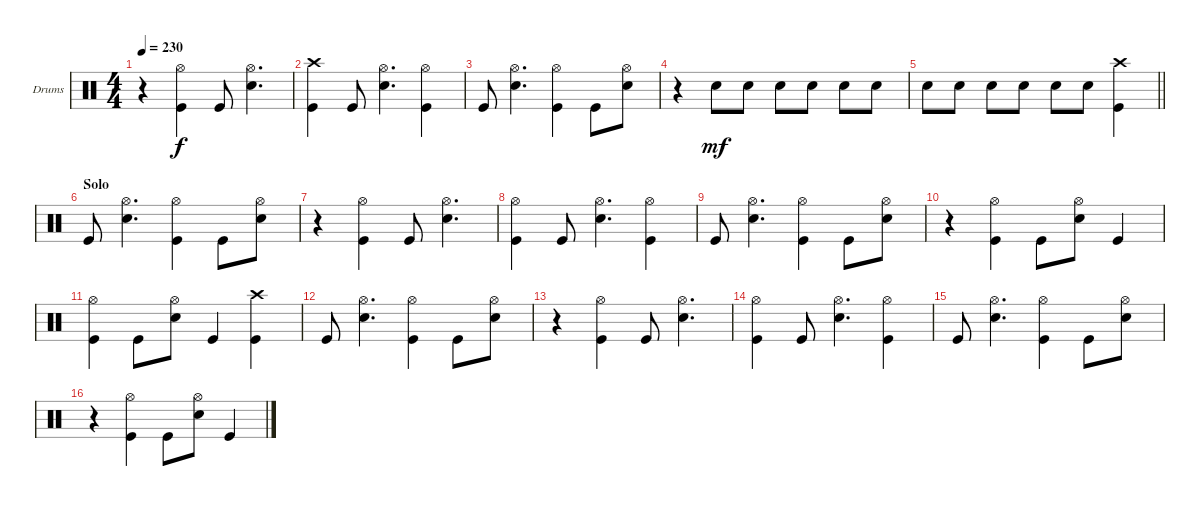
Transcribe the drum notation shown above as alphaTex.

\bracketExtendMode groupsimilarinstruments
\firstSystemTrackNameOrientation horizontal
\otherSystemsTrackNameOrientation horizontal
\track ("Drumkit" "Drums") {instrument percussion}
\staff {score}
\articulation defaults
\ts (4 4)
\tempo 230
\clef neutral
\ks c
r.4{dy f} ("Hi-Hat (open)" "Kick (hit)").4 "Kick (hit)".8 ("Hi-Hat (open)" "Snare (hit) 2").4{d} |
("Crash high (hit)" "Kick (hit)").4 "Kick (hit)".8 ("Hi-Hat (open)" "Snare (hit) 2").4{d} ("Hi-Hat (open)" "Kick (hit)").4 |
"Kick (hit)".8 ("Hi-Hat (open)" "Snare (hit) 2").4{d} ("Hi-Hat (open)" "Kick (hit)").4 "Kick (hit)".8 ("Hi-Hat (open)" "Snare (hit) 2").8 |
r.4 "Snare (hit) 2".8{dy mf} "Snare (hit) 2".8 "Snare (hit) 2".8 "Snare (hit) 2".8 "Snare (hit) 2".8 "Snare (hit) 2".8 |
\barLineRight lightlight "Snare (hit) 2".8 "Snare (hit) 2".8 "Snare (hit) 2".8 "Snare (hit) 2".8 "Snare (hit) 2".8 "Snare (hit) 2".8
("Crash high (hit)" "Kick (hit)").4 |
\section ("" "Solo")
"Kick (hit)".8 ("Hi-Hat (open)" "Snare (hit) 2").4{d} ("Hi-Hat (open)" "Kick (hit)").4 "Kick (hit)".8 ("Hi-Hat (open)" "Snare (hit) 2").8 |
r.4 ("Hi-Hat (open)" "Kick (hit)").4 "Kick (hit)".8 ("Hi-Hat (open)" "Snare (hit) 2").4{d} |
("Hi-Hat (open)" "Kick (hit)").4 "Kick (hit)".8 ("Hi-Hat (open)" "Snare (hit) 2").4{d} ("Hi-Hat (open)" "Kick (hit)").4 |
"Kick (hit)".8 ("Hi-Hat (open)" "Snare (hit) 2").4{d} ("Hi-Hat (open)" "Kick (hit)").4 "Kick (hit)".8 ("Hi-Hat (open)" "Snare (hit) 2").8 |
r.4 ("Hi-Hat (open)" "Kick (hit)").4 "Kick (hit)".8 ("Hi-Hat (open)" "Snare (hit) 2").8 "Kick (hit)".4 |
("Hi-Hat (open)" "Kick (hit)").4 "Kick (hit)".8 ("Hi-Hat (open)" "Snare (hit) 2").8 "Kick (hit)".4 ("Crash high (hit)" "Kick (hit)").4 |
"Kick (hit)".8 ("Hi-Hat (open)" "Snare (hit) 2").4{d} ("Hi-Hat (open)" "Kick (hit)").4 "Kick (hit)".8 ("Hi-Hat (open)" "Snare (hit) 2").8 |
r.4 ("Hi-Hat (open)" "Kick (hit)").4 "Kick (hit)".8 ("Hi-Hat (open)" "Snare (hit) 2").4{d} |
("Hi-Hat (open)" "Kick (hit)").4 "Kick (hit)".8 ("Hi-Hat (open)" "Snare (hit) 2").4{d} ("Hi-Hat (open)" "Kick (hit)").4 |
"Kick (hit)".8 ("Hi-Hat (open)" "Snare (hit) 2").4{d} ("Hi-Hat (open)" "Kick (hit)").4 "Kick (hit)".8 ("Hi-Hat (open)" "Snare (hit) 2").8 |
r.4 ("Hi-Hat (open)" "Kick (hit)").4 "Kick (hit)".8 ("Hi-Hat (open)" "Snare (hit) 2").8 "Kick (hit)".4
